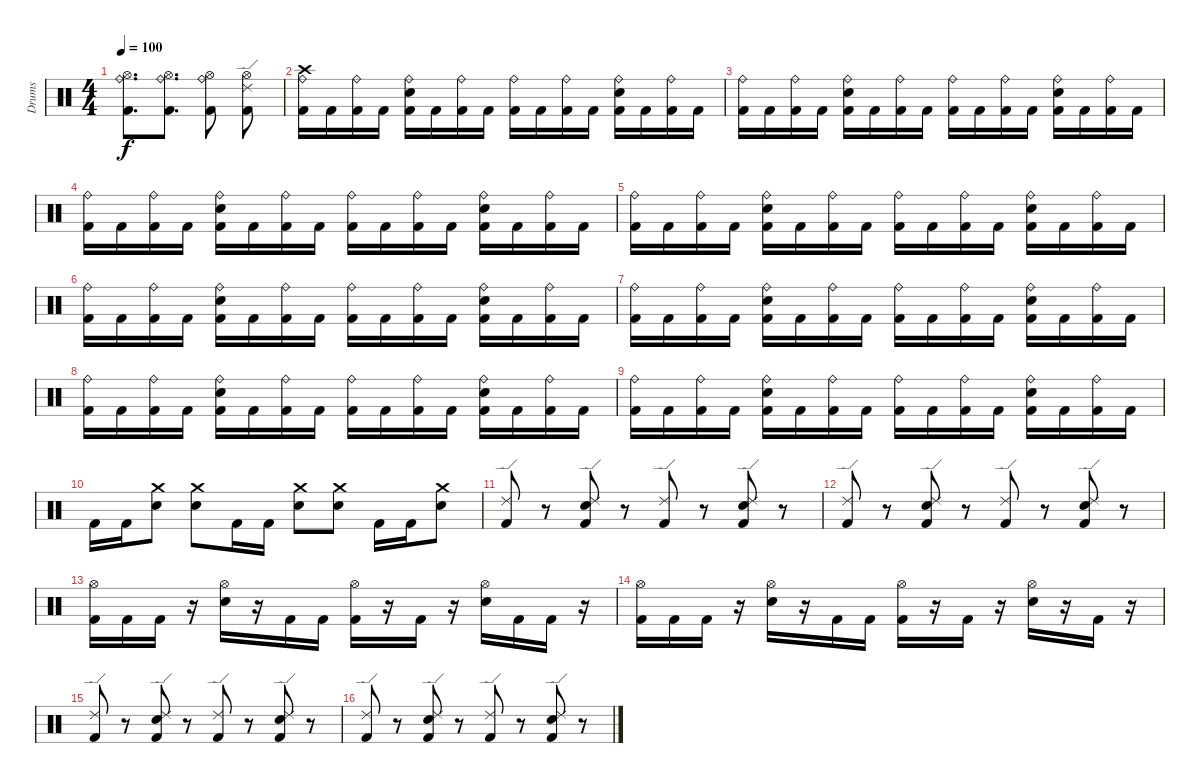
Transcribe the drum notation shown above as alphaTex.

\track ("Drums" "Drums") {instrument percussion}
\staff {score}
\articulation defaults
\ts (4 4)
\tempo 100
\clef neutral
\ks c
("Ride (bell)" "Hi-Hat (open)" "Kick (hit) 2").8{d dy f} ("Ride (bell)" "Hi-Hat (open)" "Kick (hit) 2").8{d} ("Ride (bell)" "Hi-Hat (open)" "Kick (hit) 2").8 ("Ride (edge) 2" "Hi-Hat (open)" "Kick (hit) 2").8 |
("Crash high (hit)" "Ride (bell)" "Kick (hit) 2").16 "Kick (hit) 2".16 ("Ride (bell)" "Kick (hit) 2").16 "Kick (hit) 2".16 ("Ride (bell)" "Snare (hit) 2" "Kick (hit) 2").16 "Kick (hit) 2".16 ("Ride (bell)" "Kick (hit) 2").16 "Kick (hit) 2".16 ("Ride (bell)" "Kick (hit) 2").16 "Kick (hit) 2".16 ("Ride (bell)" "Kick (hit) 2").16 "Kick (hit) 2".16 ("Ride (bell)" "Snare (hit) 2" "Kick (hit) 2").16 "Kick (hit) 2".16 ("Ride (bell)" "Kick (hit) 2").16 "Kick (hit) 2".16 |
("Ride (bell)" "Kick (hit) 2").16 "Kick (hit) 2".16 ("Ride (bell)" "Kick (hit) 2").16 "Kick (hit) 2".16 ("Ride (bell)" "Snare (hit) 2" "Kick (hit) 2").16 "Kick (hit) 2".16 ("Ride (bell)" "Kick (hit) 2").16 "Kick (hit) 2".16 ("Ride (bell)" "Kick (hit) 2").16 "Kick (hit) 2".16 ("Ride (bell)" "Kick (hit) 2").16 "Kick (hit) 2".16 ("Ride (bell)" "Snare (hit) 2" "Kick (hit) 2").16 "Kick (hit) 2".16 ("Ride (bell)" "Kick (hit) 2").16 "Kick (hit) 2".16 |
("Ride (bell)" "Kick (hit) 2").16 "Kick (hit) 2".16 ("Ride (bell)" "Kick (hit) 2").16 "Kick (hit) 2".16 ("Ride (bell)" "Snare (hit) 2" "Kick (hit) 2").16 "Kick (hit) 2".16 ("Ride (bell)" "Kick (hit) 2").16 "Kick (hit) 2".16 ("Ride (bell)" "Kick (hit) 2").16 "Kick (hit) 2".16 ("Ride (bell)" "Kick (hit) 2").16 "Kick (hit) 2".16 ("Ride (bell)" "Snare (hit) 2" "Kick (hit) 2").16 "Kick (hit) 2".16 ("Ride (bell)" "Kick (hit) 2").16 "Kick (hit) 2".16 |
("Ride (bell)" "Kick (hit) 2").16 "Kick (hit) 2".16 ("Ride (bell)" "Kick (hit) 2").16 "Kick (hit) 2".16 ("Ride (bell)" "Snare (hit) 2" "Kick (hit) 2").16 "Kick (hit) 2".16 ("Ride (bell)" "Kick (hit) 2").16 "Kick (hit) 2".16 ("Ride (bell)" "Kick (hit) 2").16 "Kick (hit) 2".16 ("Ride (bell)" "Kick (hit) 2").16 "Kick (hit) 2".16 ("Ride (bell)" "Snare (hit) 2" "Kick (hit) 2").16 "Kick (hit) 2".16 ("Ride (bell)" "Kick (hit) 2").16 "Kick (hit) 2".16 |
("Ride (bell)" "Kick (hit) 2").16 "Kick (hit) 2".16 ("Ride (bell)" "Kick (hit) 2").16 "Kick (hit) 2".16 ("Ride (bell)" "Snare (hit) 2" "Kick (hit) 2").16 "Kick (hit) 2".16 ("Ride (bell)" "Kick (hit) 2").16 "Kick (hit) 2".16 ("Ride (bell)" "Kick (hit) 2").16 "Kick (hit) 2".16 ("Ride (bell)" "Kick (hit) 2").16 "Kick (hit) 2".16 ("Ride (bell)" "Snare (hit) 2" "Kick (hit) 2").16 "Kick (hit) 2".16 ("Ride (bell)" "Kick (hit) 2").16 "Kick (hit) 2".16 |
("Ride (bell)" "Kick (hit) 2").16 "Kick (hit) 2".16 ("Ride (bell)" "Kick (hit) 2").16 "Kick (hit) 2".16 ("Ride (bell)" "Snare (hit) 2" "Kick (hit) 2").16 "Kick (hit) 2".16 ("Ride (bell)" "Kick (hit) 2").16 "Kick (hit) 2".16 ("Ride (bell)" "Kick (hit) 2").16 "Kick (hit) 2".16 ("Ride (bell)" "Kick (hit) 2").16 "Kick (hit) 2".16 ("Ride (bell)" "Snare (hit) 2" "Kick (hit) 2").16 "Kick (hit) 2".16 ("Ride (bell)" "Kick (hit) 2").16 "Kick (hit) 2".16 |
("Ride (bell)" "Kick (hit) 2").16 "Kick (hit) 2".16 ("Ride (bell)" "Kick (hit) 2").16 "Kick (hit) 2".16 ("Ride (bell)" "Snare (hit) 2" "Kick (hit) 2").16 "Kick (hit) 2".16 ("Ride (bell)" "Kick (hit) 2").16 "Kick (hit) 2".16 ("Ride (bell)" "Kick (hit) 2").16 "Kick (hit) 2".16 ("Ride (bell)" "Kick (hit) 2").16 "Kick (hit) 2".16 ("Ride (bell)" "Snare (hit) 2" "Kick (hit) 2").16 "Kick (hit) 2".16 ("Ride (bell)" "Kick (hit) 2").16 "Kick (hit) 2".16 |
("Ride (bell)" "Kick (hit) 2").16 "Kick (hit) 2".16 ("Ride (bell)" "Kick (hit) 2").16 "Kick (hit) 2".16 ("Ride (bell)" "Snare (hit) 2" "Kick (hit) 2").16 "Kick (hit) 2".16 ("Ride (bell)" "Kick (hit) 2").16 "Kick (hit) 2".16 ("Ride (bell)" "Kick (hit) 2").16 "Kick (hit) 2".16 ("Ride (bell)" "Kick (hit) 2").16 "Kick (hit) 2".16 ("Ride (bell)" "Snare (hit) 2" "Kick (hit) 2").16 "Kick (hit) 2".16 ("Ride (bell)" "Kick (hit) 2").16 "Kick (hit) 2".16 |
"Kick (hit) 2".16 "Kick (hit) 2".16 ("Crash medium (hit)" "Snare (hit) 2").8 ("Crash medium (hit)" "Snare (hit) 2").8 "Kick (hit) 2".16 "Kick (hit) 2".16 ("Crash medium (hit)" "Snare (hit) 2").8 ("Crash medium (hit)" "Snare (hit) 2").8 "Kick (hit) 2".16 "Kick (hit) 2".16 ("Crash medium (hit)" "Snare (hit) 2").8 |
("Ride (edge) 2" "Kick (hit) 2").8 r.8 ("Ride (edge) 2" "Snare (hit) 2" "Kick (hit) 2").8 r.8 ("Ride (edge) 2" "Kick (hit) 2").8 r.8 ("Ride (edge) 2" "Snare (hit) 2" "Kick (hit) 2").8 r.8 |
("Ride (edge) 2" "Kick (hit) 2").8 r.8 ("Ride (edge) 2" "Snare (hit) 2" "Kick (hit) 2").8 r.8 ("Ride (edge) 2" "Kick (hit) 2").8 r.8 ("Ride (edge) 2" "Snare (hit) 2" "Kick (hit) 2").8 r.8 |
("Hi-Hat (open)" "Kick (hit) 2").16 "Kick (hit) 2".16 "Kick (hit) 2".16 r.16 ("Hi-Hat (open)" "Snare (hit) 2").16 r.16 "Kick (hit) 2".16 "Kick (hit) 2".16 ("Hi-Hat (open)" "Kick (hit) 2").16 r.16 "Kick (hit) 2".16 r.16 ("Hi-Hat (open)" "Snare (hit) 2").16 "Kick (hit) 2".16 "Kick (hit) 2".16 r.16 |
("Hi-Hat (open)" "Kick (hit) 2").16 "Kick (hit) 2".16 "Kick (hit) 2".16 r.16 ("Hi-Hat (open)" "Snare (hit) 2").16 r.16 "Kick (hit) 2".16 "Kick (hit) 2".16 ("Hi-Hat (open)" "Kick (hit) 2").16 r.16 "Kick (hit) 2".16 r.16 ("Hi-Hat (open)" "Snare (hit) 2").16 r.16 "Kick (hit) 2".16 r.16 |
("Ride (edge) 2" "Kick (hit) 2").8 r.8 ("Ride (edge) 2" "Snare (hit) 2" "Kick (hit) 2").8 r.8 ("Ride (edge) 2" "Kick (hit) 2").8 r.8 ("Ride (edge) 2" "Snare (hit) 2" "Kick (hit) 2").8 r.8 |
("Ride (edge) 2" "Kick (hit) 2").8 r.8 ("Ride (edge) 2" "Snare (hit) 2" "Kick (hit) 2").8 r.8 ("Ride (edge) 2" "Kick (hit) 2").8 r.8 ("Ride (edge) 2" "Snare (hit) 2" "Kick (hit) 2").8 r.8
